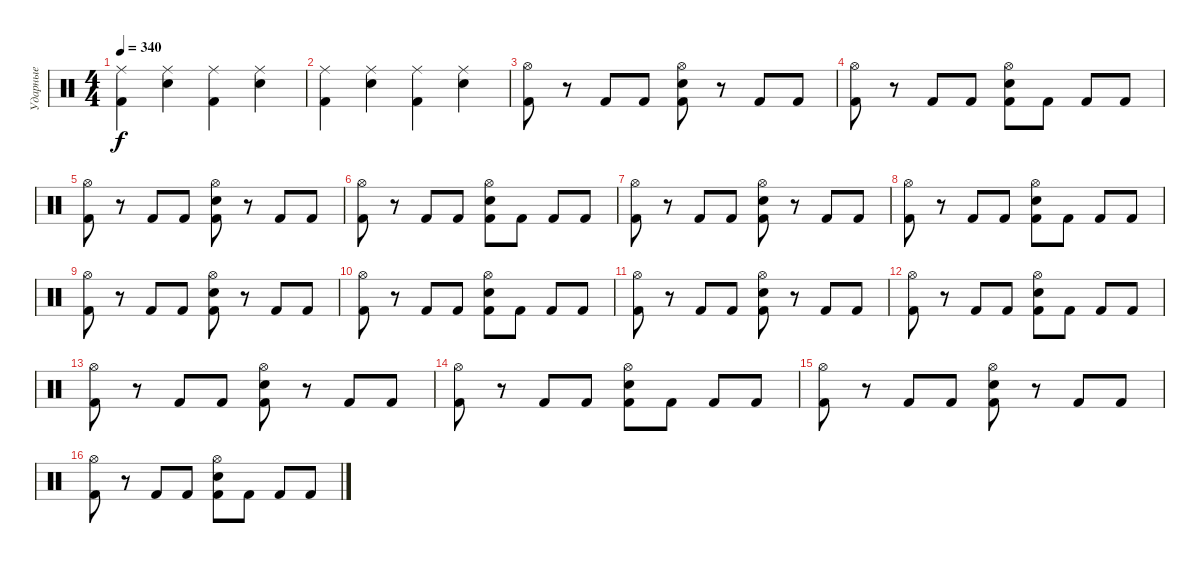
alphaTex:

\track ("Ударные" "Ударные") {instrument percussion}
\staff {score}
\articulation defaults
\ts (4 4)
\tempo 340
\clef neutral
\ks c
("Kick (hit) 2" "Ride (middle)").4{dy f} ("Electric Snare (hit)" "Ride (middle)").4 ("Kick (hit) 2" "Ride (middle)").4 ("Electric Snare (hit)" "Ride (middle)").4 |
("Kick (hit) 2" "Ride (middle)").4 ("Electric Snare (hit)" "Ride (middle)").4 ("Kick (hit) 2" "Ride (middle)").4 ("Electric Snare (hit)" "Ride (middle)").4 |
("Kick (hit) 2" "Hi-Hat (open)").8 r.8 "Kick (hit) 2".8 "Kick (hit) 2".8 ("Kick (hit) 2" "Electric Snare (hit)" "Hi-Hat (open)").8 r.8 "Kick (hit) 2".8 "Kick (hit) 2".8 |
("Kick (hit) 2" "Hi-Hat (open)").8 r.8 "Kick (hit) 2".8 "Kick (hit) 2".8 ("Kick (hit) 2" "Electric Snare (hit)" "Hi-Hat (open)").8 "Kick (hit) 2".8 "Kick (hit) 2".8 "Kick (hit) 2".8 |
("Kick (hit) 2" "Hi-Hat (open)").8 r.8 "Kick (hit) 2".8 "Kick (hit) 2".8 ("Kick (hit) 2" "Electric Snare (hit)" "Hi-Hat (open)").8 r.8 "Kick (hit) 2".8 "Kick (hit) 2".8 |
("Kick (hit) 2" "Hi-Hat (open)").8 r.8 "Kick (hit) 2".8 "Kick (hit) 2".8 ("Kick (hit) 2" "Electric Snare (hit)" "Hi-Hat (open)").8 "Kick (hit) 2".8 "Kick (hit) 2".8 "Kick (hit) 2".8 |
("Kick (hit) 2" "Hi-Hat (open)").8 r.8 "Kick (hit) 2".8 "Kick (hit) 2".8 ("Kick (hit) 2" "Electric Snare (hit)" "Hi-Hat (open)").8 r.8 "Kick (hit) 2".8 "Kick (hit) 2".8 |
("Kick (hit) 2" "Hi-Hat (open)").8 r.8 "Kick (hit) 2".8 "Kick (hit) 2".8 ("Kick (hit) 2" "Electric Snare (hit)" "Hi-Hat (open)").8 "Kick (hit) 2".8 "Kick (hit) 2".8 "Kick (hit) 2".8 |
("Kick (hit) 2" "Hi-Hat (open)").8 r.8 "Kick (hit) 2".8 "Kick (hit) 2".8 ("Kick (hit) 2" "Electric Snare (hit)" "Hi-Hat (open)").8 r.8 "Kick (hit) 2".8 "Kick (hit) 2".8 |
("Kick (hit) 2" "Hi-Hat (open)").8 r.8 "Kick (hit) 2".8 "Kick (hit) 2".8 ("Kick (hit) 2" "Electric Snare (hit)" "Hi-Hat (open)").8 "Kick (hit) 2".8 "Kick (hit) 2".8 "Kick (hit) 2".8 |
("Kick (hit) 2" "Hi-Hat (open)").8 r.8 "Kick (hit) 2".8 "Kick (hit) 2".8 ("Kick (hit) 2" "Electric Snare (hit)" "Hi-Hat (open)").8 r.8 "Kick (hit) 2".8 "Kick (hit) 2".8 |
("Kick (hit) 2" "Hi-Hat (open)").8 r.8 "Kick (hit) 2".8 "Kick (hit) 2".8 ("Kick (hit) 2" "Electric Snare (hit)" "Hi-Hat (open)").8 "Kick (hit) 2".8 "Kick (hit) 2".8 "Kick (hit) 2".8 |
("Kick (hit) 2" "Hi-Hat (open)").8 r.8 "Kick (hit) 2".8 "Kick (hit) 2".8 ("Kick (hit) 2" "Electric Snare (hit)" "Hi-Hat (open)").8 r.8 "Kick (hit) 2".8 "Kick (hit) 2".8 |
("Kick (hit) 2" "Hi-Hat (open)").8 r.8 "Kick (hit) 2".8 "Kick (hit) 2".8 ("Kick (hit) 2" "Electric Snare (hit)" "Hi-Hat (open)").8 "Kick (hit) 2".8 "Kick (hit) 2".8 "Kick (hit) 2".8 |
("Kick (hit) 2" "Hi-Hat (open)").8 r.8 "Kick (hit) 2".8 "Kick (hit) 2".8 ("Kick (hit) 2" "Electric Snare (hit)" "Hi-Hat (open)").8 r.8 "Kick (hit) 2".8 "Kick (hit) 2".8 |
("Kick (hit) 2" "Hi-Hat (open)").8 r.8 "Kick (hit) 2".8 "Kick (hit) 2".8 ("Kick (hit) 2" "Electric Snare (hit)" "Hi-Hat (open)").8 "Kick (hit) 2".8 "Kick (hit) 2".8 "Kick (hit) 2".8
